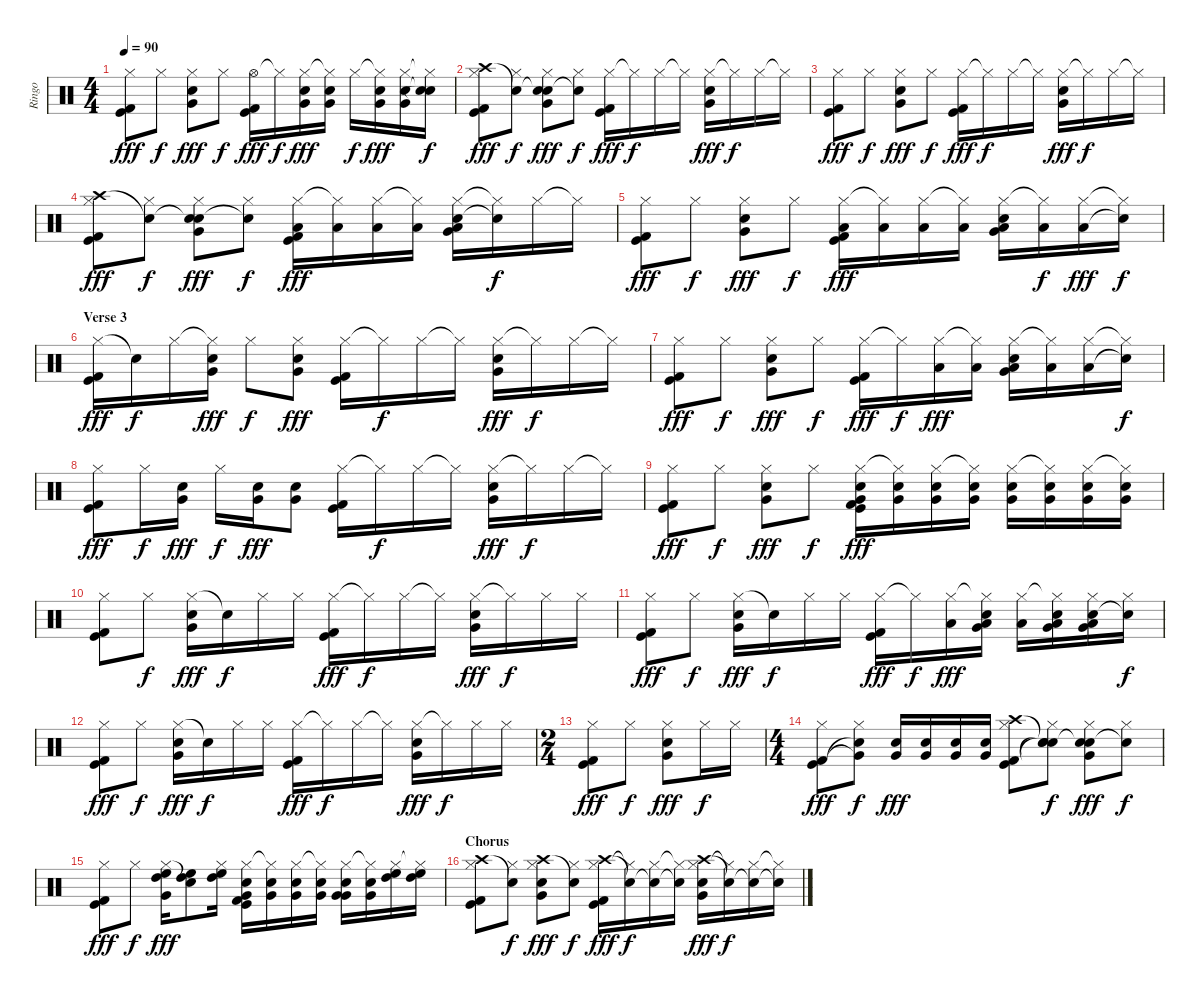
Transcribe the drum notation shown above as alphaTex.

\track ("Ringo" "Ringo") {instrument percussion}
\staff {score}
\articulation defaults
\ts (4 4)
\tempo 90
\clef neutral
\ks c
("Hi-Hat (closed)" "Kick (hit) 2" "Kick (hit)").8{dy fff} "Hi-Hat (closed)".8{dy f} ("Hi-Hat (closed)" "Snare (hit) 2" "Very Low Tom (hit)").8{dy fff} "Hi-Hat (closed)".8{dy f} ("Hi-Hat (open)" "Kick (hit) 2" "Kick (hit)").16{dy fff} "Hi-Hat (closed)"{t}.16{dy f} ("Hi-Hat (closed)" "Snare (hit) 2" "Very Low Tom (hit)").16{dy fff} ("Hi-Hat (closed)"{t} "Snare (hit) 2" "Very Low Tom (hit)").16 "Hi-Hat (closed)".16{dy f} ("Hi-Hat (closed)"{t} "Snare (hit) 2" "Very Low Tom (hit)").16{dy fff} ("Hi-Hat (closed)" "Snare (hit) 2" "Very Low Tom (hit)").16 ("Hi-Hat (closed)"{t} "Snare (hit)"{t} "Snare (hit)"{t}).16{dy f} |
("Crash high (hit)" "Hi-Hat (closed)" "Kick (hit) 2" "Kick (hit)").8{dy fff} ("Snare (hit)"{t} "Hi-Hat (closed)").8{dy f} ("Snare (hit)"{t} "Hi-Hat (closed)" "Snare (hit) 2" "Very Low Tom (hit)").8{dy fff} ("Snare (hit)"{t} "Hi-Hat (closed)").8{dy f} ("Hi-Hat (closed)" "Kick (hit) 2" "Kick (hit)").16{dy fff} "Hi-Hat (closed)"{t}.16{dy f} "Hi-Hat (closed)".16 "Hi-Hat (closed)"{t}.16 ("Hi-Hat (closed)" "Snare (hit) 2" "Very Low Tom (hit)").16{dy fff} "Hi-Hat (closed)"{t}.16{dy f} "Hi-Hat (closed)".16 "Hi-Hat (closed)"{t}.16 |
("Hi-Hat (closed)" "Kick (hit) 2" "Kick (hit)").8{dy fff} "Hi-Hat (closed)".8{dy f} ("Hi-Hat (closed)" "Snare (hit) 2" "Very Low Tom (hit)").8{dy fff} "Hi-Hat (closed)".8{dy f} ("Hi-Hat (closed)" "Kick (hit) 2" "Kick (hit)").16{dy fff} "Hi-Hat (closed)"{t}.16{dy f} "Hi-Hat (closed)".16 "Hi-Hat (closed)"{t}.16 ("Hi-Hat (closed)" "Snare (hit) 2" "Very Low Tom (hit)").16{dy fff} "Hi-Hat (closed)"{t}.16{dy f} "Hi-Hat (closed)".16 "Hi-Hat (closed)"{t}.16 |
("Crash high (hit)" "Hi-Hat (closed)" "Kick (hit) 2" "Kick (hit)").8{dy fff} ("Snare (hit)"{t} "Hi-Hat (closed)").8{dy f} ("Snare (hit)"{t} "Hi-Hat (closed)" "Snare (hit) 2" "Very Low Tom (hit)").8{dy fff} ("Snare (hit)"{t} "Hi-Hat (closed)").8{dy f} ("Hi-Hat (closed)" "Kick (hit) 2" "Kick (hit)" "Low Floor Tom (hit)").16{dy fff} ("Hi-Hat (closed)"{t} "Low Floor Tom (hit)").16 ("Hi-Hat (closed)" "Low Floor Tom (hit)").16 ("Hi-Hat (closed)"{t} "Low Floor Tom (hit)").16 ("Hi-Hat (closed)" "Snare (hit) 2" "Very Low Tom (hit)" "Low Floor Tom (hit)").16 ("Hi-Hat (closed)"{t} "Snare (hit)"{t}).16{dy f} "Hi-Hat (closed)".16 "Hi-Hat (closed)"{t}.16 |
("Hi-Hat (closed)" "Kick (hit) 2" "Kick (hit)").8{dy fff} "Hi-Hat (closed)".8{dy f} ("Hi-Hat (closed)" "Snare (hit) 2" "Very Low Tom (hit)").8{dy fff} "Hi-Hat (closed)".8{dy f} ("Hi-Hat (closed)" "Kick (hit) 2" "Kick (hit)" "Low Floor Tom (hit)").16{dy fff} ("Hi-Hat (closed)"{t} "Low Floor Tom (hit)").16 ("Hi-Hat (closed)" "Low Floor Tom (hit)").16 ("Hi-Hat (closed)"{t} "Low Floor Tom (hit)").16 ("Hi-Hat (closed)" "Snare (hit) 2" "Very Low Tom (hit)" "Low Floor Tom (hit)").16 ("Hi-Hat (closed)"{t} "Low Floor Tom (hit)").16{dy f} ("Hi-Hat (closed)" "Low Floor Tom (hit)").16{dy fff} ("Hi-Hat (closed)"{t} "Snare (hit)"{t}).16{dy f} |
\section ("" "Verse 3")
("Hi-Hat (closed)" "Kick (hit) 2" "Kick (hit)").16{dy fff} "Snare (hit)"{t}.16{dy f} "Hi-Hat (closed)".16 ("Hi-Hat (closed)"{t} "Snare (hit) 2" "Very Low Tom (hit)").16{dy fff} "Hi-Hat (closed)".8{dy f} ("Hi-Hat (closed)" "Snare (hit) 2" "Very Low Tom (hit)").8{dy fff} ("Hi-Hat (closed)" "Kick (hit) 2" "Kick (hit)").16 "Hi-Hat (closed)"{t}.16{dy f} "Hi-Hat (closed)".16 "Hi-Hat (closed)"{t}.16 ("Hi-Hat (closed)" "Snare (hit) 2" "Very Low Tom (hit)").16{dy fff} "Hi-Hat (closed)"{t}.16{dy f} "Hi-Hat (closed)".16 "Hi-Hat (closed)"{t}.16 |
("Hi-Hat (closed)" "Kick (hit) 2" "Kick (hit)").8{dy fff} "Hi-Hat (closed)".8{dy f} ("Hi-Hat (closed)" "Snare (hit) 2" "Very Low Tom (hit)").8{dy fff} "Hi-Hat (closed)".8{dy f} ("Hi-Hat (closed)" "Kick (hit) 2" "Kick (hit)").16{dy fff} "Hi-Hat (closed)"{t}.16{dy f} ("Hi-Hat (closed)" "Low Floor Tom (hit)").16{dy fff} ("Hi-Hat (closed)"{t} "Low Floor Tom (hit)").16 ("Hi-Hat (closed)" "Snare (hit) 2" "Very Low Tom (hit)" "Low Floor Tom (hit)").16 ("Hi-Hat (closed)"{t} "Low Floor Tom (hit)").16 ("Hi-Hat (closed)" "Low Floor Tom (hit)").16 ("Hi-Hat (closed)"{t} "Snare (hit)"{t}).16{dy f} |
("Hi-Hat (closed)" "Kick (hit) 2" "Kick (hit)").8{dy fff} "Hi-Hat (closed)".16{dy f} ("Snare (hit) 2" "Very Low Tom (hit)").16{dy fff} "Hi-Hat (closed)".16{dy f} ("Snare (hit) 2" "Very Low Tom (hit)").16{dy fff} ("Snare (hit) 2" "Very Low Tom (hit)").8 ("Hi-Hat (closed)" "Kick (hit) 2" "Kick (hit)").16 "Hi-Hat (closed)"{t}.16{dy f} "Hi-Hat (closed)".16 "Hi-Hat (closed)"{t}.16 ("Hi-Hat (closed)" "Snare (hit) 2" "Very Low Tom (hit)").16{dy fff} "Hi-Hat (closed)"{t}.16{dy f} "Hi-Hat (closed)".16 "Hi-Hat (closed)"{t}.16 |
("Hi-Hat (closed)" "Kick (hit) 2" "Kick (hit)").8{dy fff} "Hi-Hat (closed)".8{dy f} ("Hi-Hat (closed)" "Snare (hit) 2" "Very Low Tom (hit)").8{dy fff} "Hi-Hat (closed)".8{dy f} ("Hi-Hat (closed)" "Snare (hit) 2" "Very Low Tom (hit)" "Kick (hit) 2" "Kick (hit)").16{dy fff} ("Hi-Hat (closed)"{t} "Snare (hit) 2" "Very Low Tom (hit)").16 ("Hi-Hat (closed)" "Snare (hit) 2" "Very Low Tom (hit)").16 ("Hi-Hat (closed)"{t} "Snare (hit) 2" "Very Low Tom (hit)").16 ("Hi-Hat (closed)" "Snare (hit) 2" "Very Low Tom (hit)").16 ("Hi-Hat (closed)"{t} "Snare (hit) 2" "Very Low Tom (hit)").16 ("Hi-Hat (closed)" "Snare (hit) 2" "Very Low Tom (hit)").16 ("Hi-Hat (closed)"{t} "Snare (hit) 2" "Very Low Tom (hit)").16 |
("Hi-Hat (closed)" "Kick (hit) 2" "Kick (hit)").8 "Hi-Hat (closed)".8{dy f} ("Hi-Hat (closed)" "Snare (hit) 2" "Very Low Tom (hit)").16{dy fff} "Snare (hit)"{t}.16{dy f} "Hi-Hat (closed)".16 "Hi-Hat (closed)".16 ("Hi-Hat (closed)" "Kick (hit) 2" "Kick (hit)").16{dy fff} "Hi-Hat (closed)"{t}.16{dy f} "Hi-Hat (closed)".16 "Hi-Hat (closed)"{t}.16 ("Hi-Hat (closed)" "Snare (hit) 2" "Very Low Tom (hit)").16{dy fff} "Hi-Hat (closed)"{t}.16{dy f} "Hi-Hat (closed)".16 "Hi-Hat (closed)".16 |
("Hi-Hat (closed)" "Kick (hit) 2" "Kick (hit)").8{dy fff} "Hi-Hat (closed)".8{dy f} ("Hi-Hat (closed)" "Snare (hit) 2" "Very Low Tom (hit)").16{dy fff} "Snare (hit)"{t}.16{dy f} "Hi-Hat (closed)".16 "Hi-Hat (closed)".16 ("Hi-Hat (closed)" "Kick (hit) 2" "Kick (hit)").16{dy fff} "Hi-Hat (closed)"{t}.16{dy f} ("Hi-Hat (closed)" "Low Floor Tom (hit)").16{dy fff} ("Hi-Hat (closed)"{t} "Snare (hit) 2" "Very Low Tom (hit)" "Low Floor Tom (hit)").16 ("Hi-Hat (closed)" "Low Floor Tom (hit)").16 ("Hi-Hat (closed)"{t} "Snare (hit) 2" "Very Low Tom (hit)" "Low Floor Tom (hit)").16 ("Hi-Hat (closed)" "Snare (hit) 2" "Very Low Tom (hit)" "Low Floor Tom (hit)").16 ("Hi-Hat (closed)" "Snare (hit)"{t}).16{dy f} |
("Hi-Hat (closed)" "Kick (hit) 2" "Kick (hit)").8{dy fff} "Hi-Hat (closed)".8{dy f} ("Hi-Hat (closed)" "Snare (hit) 2" "Very Low Tom (hit)").16{dy fff} "Snare (hit)"{t}.16{dy f} "Hi-Hat (closed)".16 "Hi-Hat (closed)".16 ("Hi-Hat (closed)" "Kick (hit) 2" "Kick (hit)").16{dy fff} "Hi-Hat (closed)"{t}.16{dy f} "Hi-Hat (closed)".16 "Hi-Hat (closed)"{t}.16 ("Hi-Hat (closed)" "Snare (hit) 2" "Very Low Tom (hit)").16{dy fff} "Hi-Hat (closed)"{t}.16{dy f} "Hi-Hat (closed)".16 "Hi-Hat (closed)".16 |
\ts (2 4)
("Hi-Hat (closed)" "Kick (hit) 2" "Kick (hit)").8{dy fff} "Hi-Hat (closed)".8{dy f} ("Hi-Hat (closed)" "Snare (hit) 2" "Very Low Tom (hit)").8{dy fff} "Hi-Hat (closed)".16{dy f} "Hi-Hat (closed)".16 |
\ts (4 4)
("Hi-Hat (closed)" "Kick (hit) 2" "Kick (hit)").8{dy fff} ("Hi-Hat (closed)" "Very Low Tom (hit)"{t} "Snare (hit)"{t}).8{dy f} ("Snare (hit) 2" "Very Low Tom (hit)").16{dy fff} ("Snare (hit) 2" "Very Low Tom (hit)").16 ("Snare (hit) 2" "Very Low Tom (hit)").16 ("Snare (hit) 2" "Very Low Tom (hit)").16 ("Crash high (hit)" "Hi-Hat (closed)" "Kick (hit) 2" "Kick (hit)").8 ("Snare (hit)"{t} "Hi-Hat (closed)" "Snare (hit)"{t} "Snare (hit)"{t}).8{dy f} ("Snare (hit)"{t} "Hi-Hat (closed)" "Snare (hit) 2" "Very Low Tom (hit)").8{dy fff} ("Snare (hit)"{t} "Hi-Hat (closed)").8{dy f} |
("Hi-Hat (closed)" "Kick (hit) 2" "Kick (hit)").8{dy fff} "Hi-Hat (closed)".8{dy f} ("High Tom (hit)" "Hi-Hat (closed)" "High Floor Tom (hit)" "Very Low Tom (hit)").16{dy fff} ("High Tom (hit)" "Snare (hit)"{t} "High Floor Tom (hit)").8 ("High Tom (hit)" "Hi-Hat (closed)" "High Floor Tom (hit)").16 ("Very Low Tom (hit)" "Hi-Hat (closed)" "Snare (hit) 2" "Kick (hit) 2" "Kick (hit)").16 ("Very Low Tom (hit)" "Hi-Hat (closed)"{t} "Snare (hit) 2").16 ("Very Low Tom (hit)" "Hi-Hat (closed)" "Snare (hit) 2").16 ("Very Low Tom (hit)" "Hi-Hat (closed)"{t} "Snare (hit) 2").16 ("Very Low Tom (hit)" "Hi-Hat (closed)" "Snare (hit) 2" "Very Low Tom (hit)").16 ("Very Low Tom (hit)" "Hi-Hat (closed)"{t} "Snare (hit) 2").16 ("High Tom (hit)" "Hi-Hat (closed)" "High Floor Tom (hit)").16 ("High Tom (hit)" "Hi-Hat (closed)"{t} "High Floor Tom (hit)").16 |
\section ("" "Chorus")
("Crash high (hit)" "Hi-Hat (closed)" "Kick (hit) 2" "Kick (hit)").8 ("Snare (hit)"{t} "Hi-Hat (closed)").8{dy f} ("Crash high (hit)" "Hi-Hat (closed)" "Snare (hit) 2" "Very Low Tom (hit)").8{dy fff} ("Snare (hit)"{t} "Hi-Hat (closed)").8{dy f} ("Crash high (hit)" "Hi-Hat (closed)" "Kick (hit) 2" "Kick (hit)").16{dy fff} ("Snare (hit)"{t} "Hi-Hat (closed)"{t}).16{dy f} ("Snare (hit)"{t} "Hi-Hat (closed)").16 ("Snare (hit)"{t} "Hi-Hat (closed)"{t}).16 ("Crash high (hit)" "Hi-Hat (closed)" "Snare (hit) 2" "Very Low Tom (hit)").16{dy fff} ("Snare (hit)"{t} "Hi-Hat (closed)"{t}).16{dy f} ("Snare (hit)"{t} "Hi-Hat (closed)").16 ("Snare (hit)"{t} "Hi-Hat (closed)"{t}).16
